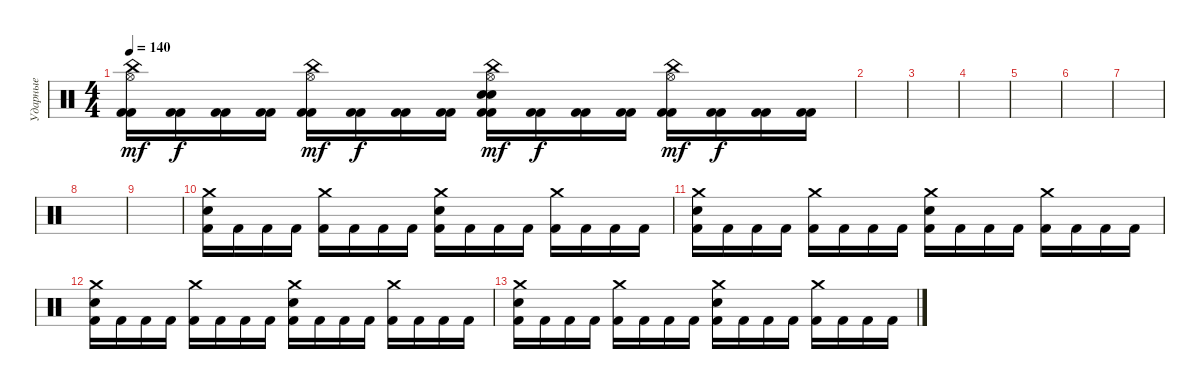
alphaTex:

\track ("Ударные" "Ударные") {instrument percussion}
\staff {score}
\articulation defaults
\ts (4 4)
\tempo 140
\clef neutral
\ks c
("China (hit)" "Hi-Hat (open)" "Kick (hit) 2" "Kick (hit) 2").16{dy mf} ("Kick (hit) 2" "Kick (hit) 2").16{dy f} ("Kick (hit) 2" "Kick (hit) 2").16 ("Kick (hit) 2" "Kick (hit) 2").16 ("China (hit)" "Hi-Hat (open)" "Kick (hit) 2" "Kick (hit) 2").16{dy mf} ("Kick (hit) 2" "Kick (hit) 2").16{dy f} ("Kick (hit) 2" "Kick (hit) 2").16 ("Kick (hit) 2" "Kick (hit) 2").16 ("China (hit)" "Hi-Hat (open)" "Electric Snare (hit)" "Electric Snare (hit)" "Kick (hit) 2" "Kick (hit) 2").16{dy mf} ("Kick (hit) 2" "Kick (hit) 2").16{dy f} ("Kick (hit) 2" "Kick (hit) 2").16 ("Kick (hit) 2" "Kick (hit) 2").16 ("China (hit)" "Hi-Hat (open)" "Kick (hit) 2" "Kick (hit) 2").16{dy mf} ("Kick (hit) 2" "Kick (hit) 2").16{dy f} ("Kick (hit) 2" "Kick (hit) 2").16 ("Kick (hit) 2" "Kick (hit) 2").16 |
|
|
|
|
|
|
|
|
("Crash medium (hit)" "Electric Snare (hit)" "Kick (hit) 2").16 "Kick (hit) 2".16 "Kick (hit) 2".16 "Kick (hit) 2".16 ("Crash medium (hit)" "Kick (hit) 2").16 "Kick (hit) 2".16 "Kick (hit) 2".16 "Kick (hit) 2".16 ("Crash medium (hit)" "Electric Snare (hit)" "Kick (hit) 2").16 "Kick (hit) 2".16 "Kick (hit) 2".16 "Kick (hit) 2".16 ("Crash medium (hit)" "Kick (hit) 2").16 "Kick (hit) 2".16 "Kick (hit) 2".16 "Kick (hit) 2".16 |
("Crash medium (hit)" "Electric Snare (hit)" "Kick (hit) 2").16 "Kick (hit) 2".16 "Kick (hit) 2".16 "Kick (hit) 2".16 ("Crash medium (hit)" "Kick (hit) 2").16 "Kick (hit) 2".16 "Kick (hit) 2".16 "Kick (hit) 2".16 ("Crash medium (hit)" "Electric Snare (hit)" "Kick (hit) 2").16 "Kick (hit) 2".16 "Kick (hit) 2".16 "Kick (hit) 2".16 ("Crash medium (hit)" "Kick (hit) 2").16 "Kick (hit) 2".16 "Kick (hit) 2".16 "Kick (hit) 2".16 |
("Crash medium (hit)" "Electric Snare (hit)" "Kick (hit) 2").16 "Kick (hit) 2".16 "Kick (hit) 2".16 "Kick (hit) 2".16 ("Crash medium (hit)" "Kick (hit) 2").16 "Kick (hit) 2".16 "Kick (hit) 2".16 "Kick (hit) 2".16 ("Crash medium (hit)" "Electric Snare (hit)" "Kick (hit) 2").16 "Kick (hit) 2".16 "Kick (hit) 2".16 "Kick (hit) 2".16 ("Crash medium (hit)" "Kick (hit) 2").16 "Kick (hit) 2".16 "Kick (hit) 2".16 "Kick (hit) 2".16 |
("Crash medium (hit)" "Electric Snare (hit)" "Kick (hit) 2").16 "Kick (hit) 2".16 "Kick (hit) 2".16 "Kick (hit) 2".16 ("Crash medium (hit)" "Kick (hit) 2").16 "Kick (hit) 2".16 "Kick (hit) 2".16 "Kick (hit) 2".16 ("Crash medium (hit)" "Electric Snare (hit)" "Kick (hit) 2").16 "Kick (hit) 2".16 "Kick (hit) 2".16 "Kick (hit) 2".16 ("Crash medium (hit)" "Kick (hit) 2").16 "Kick (hit) 2".16 "Kick (hit) 2".16 "Kick (hit) 2".16
